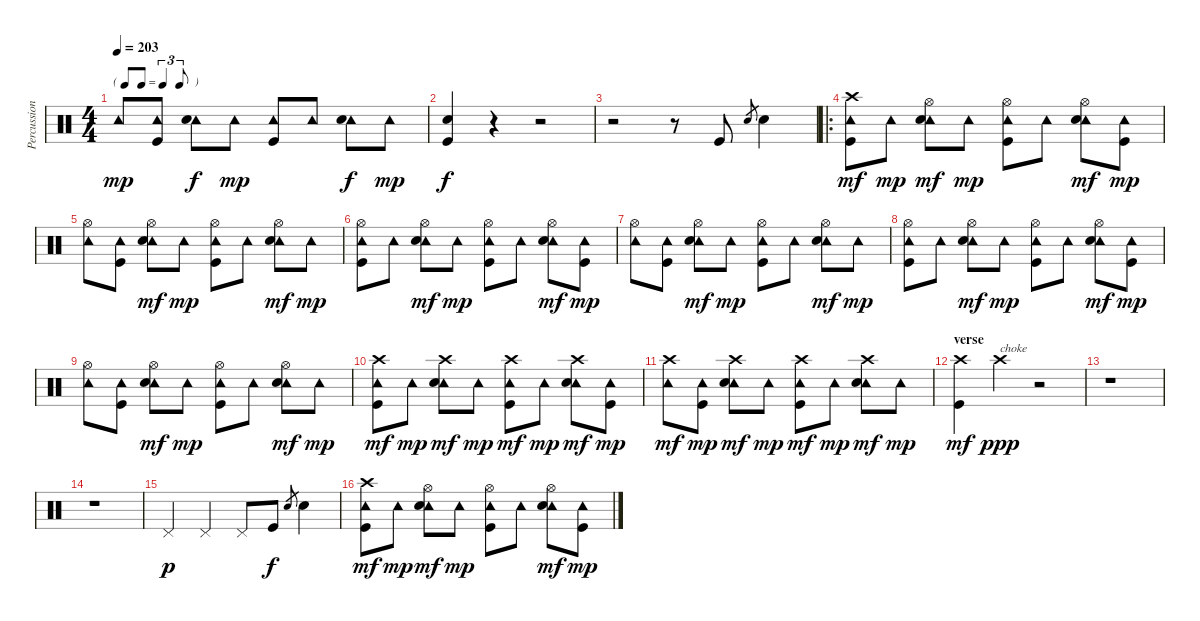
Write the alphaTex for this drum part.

\track ("Percussion" "Percussion") {instrument percussion}
\staff {score}
\articulation defaults
\ts (4 4)
\tf triplet8th
\tempo 203
\clef neutral
\ks c "Tambourine (hit)".8{dy mp}
("Tambourine (hit)" "Kick (hit)").8 ("Tambourine (hit)" "Snare (hit) 2").8{dy f} "Tambourine (hit)".8{dy mp} ("Tambourine (hit)" "Kick (hit)").8 "Tambourine (hit)".8 ("Tambourine (hit)" "Snare (hit) 2").8{dy f} "Tambourine (hit)".8{dy mp} |
("Snare (hit) 2" "Kick (hit)").4{dy f} r.4 r.2 |
r.2 r.8 "Kick (hit)".8 "Snare (hit) 2".8{gr} "Snare (hit) 2".4 |
\ro
("Tambourine (hit)" "Crash high (hit)" "Kick (hit)").8{dy mf} "Tambourine (hit)".8{dy mp} ("Tambourine (hit)" "Hi-Hat (open)" "Snare (hit) 2").8{dy mf} "Tambourine (hit)".8{dy mp} ("Tambourine (hit)" "Hi-Hat (open)" "Kick (hit)").8 "Tambourine (hit)".8 ("Tambourine (hit)" "Hi-Hat (open)" "Snare (hit) 2").8{dy mf} ("Tambourine (hit)" "Kick (hit)").8{dy mp} |
("Tambourine (hit)" "Hi-Hat (open)").8 ("Tambourine (hit)" "Kick (hit)").8 ("Tambourine (hit)" "Hi-Hat (open)" "Snare (hit) 2").8{dy mf} "Tambourine (hit)".8{dy mp} ("Tambourine (hit)" "Hi-Hat (open)" "Kick (hit)").8 "Tambourine (hit)".8 ("Tambourine (hit)" "Hi-Hat (open)" "Snare (hit) 2").8{dy mf} "Tambourine (hit)".8{dy mp} |
("Tambourine (hit)" "Hi-Hat (open)" "Kick (hit)").8 "Tambourine (hit)".8 ("Tambourine (hit)" "Hi-Hat (open)" "Snare (hit) 2").8{dy mf} "Tambourine (hit)".8{dy mp} ("Tambourine (hit)" "Hi-Hat (open)" "Kick (hit)").8 "Tambourine (hit)".8 ("Tambourine (hit)" "Hi-Hat (open)" "Snare (hit) 2").8{dy mf} ("Tambourine (hit)" "Kick (hit)").8{dy mp} |
("Tambourine (hit)" "Hi-Hat (open)").8 ("Tambourine (hit)" "Kick (hit)").8 ("Tambourine (hit)" "Hi-Hat (open)" "Snare (hit) 2").8{dy mf} "Tambourine (hit)".8{dy mp} ("Tambourine (hit)" "Hi-Hat (open)" "Kick (hit)").8 "Tambourine (hit)".8 ("Tambourine (hit)" "Hi-Hat (open)" "Snare (hit) 2").8{dy mf} "Tambourine (hit)".8{dy mp} |
("Tambourine (hit)" "Hi-Hat (open)" "Kick (hit)").8 "Tambourine (hit)".8 ("Tambourine (hit)" "Hi-Hat (open)" "Snare (hit) 2").8{dy mf} "Tambourine (hit)".8{dy mp} ("Tambourine (hit)" "Hi-Hat (open)" "Kick (hit)").8 "Tambourine (hit)".8 ("Tambourine (hit)" "Hi-Hat (open)" "Snare (hit) 2").8{dy mf} ("Tambourine (hit)" "Kick (hit)").8{dy mp} |
("Tambourine (hit)" "Hi-Hat (open)").8 ("Tambourine (hit)" "Kick (hit)").8 ("Tambourine (hit)" "Hi-Hat (open)" "Snare (hit) 2").8{dy mf} "Tambourine (hit)".8{dy mp} ("Tambourine (hit)" "Hi-Hat (open)" "Kick (hit)").8 "Tambourine (hit)".8 ("Tambourine (hit)" "Hi-Hat (open)" "Snare (hit) 2").8{dy mf} "Tambourine (hit)".8{dy mp} |
("Tambourine (hit)" "Crash high (hit)" "Kick (hit)").8{dy mf} "Tambourine (hit)".8{dy mp} ("Tambourine (hit)" "Crash high (hit)" "Snare (hit) 2").8{dy mf} "Tambourine (hit)".8{dy mp} ("Tambourine (hit)" "Crash high (hit)" "Kick (hit)").8{dy mf} "Tambourine (hit)".8{dy mp} ("Tambourine (hit)" "Crash high (hit)" "Snare (hit) 2").8{dy mf} ("Tambourine (hit)" "Kick (hit)").8{dy mp} |
("Tambourine (hit)" "Crash high (hit)").8{dy mf} ("Tambourine (hit)" "Kick (hit)").8{dy mp} ("Tambourine (hit)" "Crash high (hit)" "Snare (hit) 2").8{dy mf} "Tambourine (hit)".8{dy mp} ("Tambourine (hit)" "Crash high (hit)" "Kick (hit)").8{dy mf} "Tambourine (hit)".8{dy mp} ("Tambourine (hit)" "Crash high (hit)" "Snare (hit) 2").8{dy mf} "Tambourine (hit)".8{dy mp} |
\section ("" "verse")
("Crash high (hit)" "Kick (hit)").4{dy mf} "Crash high (hit)".4{txt "choke" dy ppp} r.2 |
r.1 |
r.1 |
"Pedal Hi-Hat (hit)".4{dy p} "Pedal Hi-Hat (hit)".4 "Pedal Hi-Hat (hit)".8 "Kick (hit)".8{dy f} "Snare (hit) 2".8{gr} "Snare (hit) 2".4 |
("Tambourine (hit)" "Crash high (hit)" "Kick (hit)").8{dy mf} "Tambourine (hit)".8{dy mp} ("Tambourine (hit)" "Hi-Hat (open)" "Snare (hit) 2").8{dy mf} "Tambourine (hit)".8{dy mp} ("Tambourine (hit)" "Hi-Hat (open)" "Kick (hit)").8 "Tambourine (hit)".8 ("Tambourine (hit)" "Hi-Hat (open)" "Snare (hit) 2").8{dy mf} ("Tambourine (hit)" "Kick (hit)").8{dy mp}
